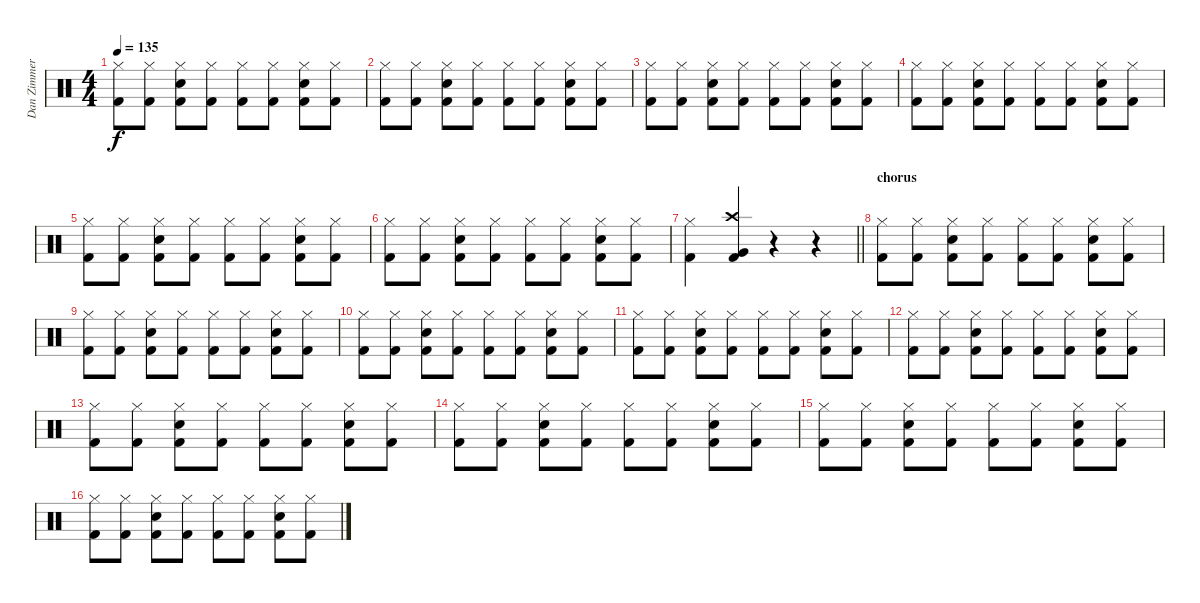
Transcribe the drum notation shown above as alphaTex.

\track ("Dan Zimmerman" "Dan Zimmer") {instrument percussion}
\staff {score}
\articulation defaults
\ts (4 4)
\tempo 135
\clef neutral
\ks c
("Hi-Hat (closed)" "Kick (hit) 2").8{dy f} ("Hi-Hat (closed)" "Kick (hit) 2").8 ("Snare (hit) 2" "Hi-Hat (closed)" "Kick (hit) 2").8 ("Hi-Hat (closed)" "Kick (hit) 2").8 ("Hi-Hat (closed)" "Kick (hit) 2").8 ("Hi-Hat (closed)" "Kick (hit) 2").8 ("Snare (hit) 2" "Hi-Hat (closed)" "Kick (hit) 2").8 ("Hi-Hat (closed)" "Kick (hit) 2").8 |
("Hi-Hat (closed)" "Kick (hit) 2").8 ("Hi-Hat (closed)" "Kick (hit) 2").8 ("Snare (hit) 2" "Hi-Hat (closed)" "Kick (hit) 2").8 ("Hi-Hat (closed)" "Kick (hit) 2").8 ("Hi-Hat (closed)" "Kick (hit) 2").8 ("Hi-Hat (closed)" "Kick (hit) 2").8 ("Snare (hit) 2" "Hi-Hat (closed)" "Kick (hit) 2").8 ("Hi-Hat (closed)" "Kick (hit) 2").8 |
("Hi-Hat (closed)" "Kick (hit) 2").8 ("Hi-Hat (closed)" "Kick (hit) 2").8 ("Snare (hit) 2" "Hi-Hat (closed)" "Kick (hit) 2").8 ("Hi-Hat (closed)" "Kick (hit) 2").8 ("Hi-Hat (closed)" "Kick (hit) 2").8 ("Hi-Hat (closed)" "Kick (hit) 2").8 ("Snare (hit) 2" "Hi-Hat (closed)" "Kick (hit) 2").8 ("Hi-Hat (closed)" "Kick (hit) 2").8 |
("Hi-Hat (closed)" "Kick (hit) 2").8 ("Hi-Hat (closed)" "Kick (hit) 2").8 ("Snare (hit) 2" "Hi-Hat (closed)" "Kick (hit) 2").8 ("Hi-Hat (closed)" "Kick (hit) 2").8 ("Hi-Hat (closed)" "Kick (hit) 2").8 ("Hi-Hat (closed)" "Kick (hit) 2").8 ("Snare (hit) 2" "Hi-Hat (closed)" "Kick (hit) 2").8 ("Hi-Hat (closed)" "Kick (hit) 2").8 |
("Hi-Hat (closed)" "Kick (hit) 2").8 ("Hi-Hat (closed)" "Kick (hit) 2").8 ("Snare (hit) 2" "Hi-Hat (closed)" "Kick (hit) 2").8 ("Hi-Hat (closed)" "Kick (hit) 2").8 ("Hi-Hat (closed)" "Kick (hit) 2").8 ("Hi-Hat (closed)" "Kick (hit) 2").8 ("Snare (hit) 2" "Hi-Hat (closed)" "Kick (hit) 2").8 ("Hi-Hat (closed)" "Kick (hit) 2").8 |
("Hi-Hat (closed)" "Kick (hit) 2").8 ("Hi-Hat (closed)" "Kick (hit) 2").8 ("Snare (hit) 2" "Hi-Hat (closed)" "Kick (hit) 2").8 ("Hi-Hat (closed)" "Kick (hit) 2").8 ("Hi-Hat (closed)" "Kick (hit) 2").8 ("Hi-Hat (closed)" "Kick (hit) 2").8 ("Snare (hit) 2" "Hi-Hat (closed)" "Kick (hit) 2").8 ("Hi-Hat (closed)" "Kick (hit) 2").8 |
\barLineRight lightlight
("Hi-Hat (closed)" "Kick (hit) 2").4 ("Crash high (hit)" "Very Low Tom (hit)" "Kick (hit) 2").4 r.4 r.4 |
\section ("" "chorus")
("Hi-Hat (closed)" "Kick (hit) 2").8 ("Hi-Hat (closed)" "Kick (hit) 2").8 ("Snare (hit) 2" "Hi-Hat (closed)" "Kick (hit) 2").8 ("Hi-Hat (closed)" "Kick (hit) 2").8 ("Hi-Hat (closed)" "Kick (hit) 2").8 ("Hi-Hat (closed)" "Kick (hit) 2").8 ("Snare (hit) 2" "Hi-Hat (closed)" "Kick (hit) 2").8 ("Hi-Hat (closed)" "Kick (hit) 2").8 |
("Hi-Hat (closed)" "Kick (hit) 2").8 ("Hi-Hat (closed)" "Kick (hit) 2").8 ("Snare (hit) 2" "Hi-Hat (closed)" "Kick (hit) 2").8 ("Hi-Hat (closed)" "Kick (hit) 2").8 ("Hi-Hat (closed)" "Kick (hit) 2").8 ("Hi-Hat (closed)" "Kick (hit) 2").8 ("Snare (hit) 2" "Hi-Hat (closed)" "Kick (hit) 2").8 ("Hi-Hat (closed)" "Kick (hit) 2").8 |
("Hi-Hat (closed)" "Kick (hit) 2").8 ("Hi-Hat (closed)" "Kick (hit) 2").8 ("Snare (hit) 2" "Hi-Hat (closed)" "Kick (hit) 2").8 ("Hi-Hat (closed)" "Kick (hit) 2").8 ("Hi-Hat (closed)" "Kick (hit) 2").8 ("Hi-Hat (closed)" "Kick (hit) 2").8 ("Snare (hit) 2" "Hi-Hat (closed)" "Kick (hit) 2").8 ("Hi-Hat (closed)" "Kick (hit) 2").8 |
("Hi-Hat (closed)" "Kick (hit) 2").8 ("Hi-Hat (closed)" "Kick (hit) 2").8 ("Snare (hit) 2" "Hi-Hat (closed)" "Kick (hit) 2").8 ("Hi-Hat (closed)" "Kick (hit) 2").8 ("Hi-Hat (closed)" "Kick (hit) 2").8 ("Hi-Hat (closed)" "Kick (hit) 2").8 ("Snare (hit) 2" "Hi-Hat (closed)" "Kick (hit) 2").8 ("Hi-Hat (closed)" "Kick (hit) 2").8 |
("Hi-Hat (closed)" "Kick (hit) 2").8 ("Hi-Hat (closed)" "Kick (hit) 2").8 ("Snare (hit) 2" "Hi-Hat (closed)" "Kick (hit) 2").8 ("Hi-Hat (closed)" "Kick (hit) 2").8 ("Hi-Hat (closed)" "Kick (hit) 2").8 ("Hi-Hat (closed)" "Kick (hit) 2").8 ("Snare (hit) 2" "Hi-Hat (closed)" "Kick (hit) 2").8 ("Hi-Hat (closed)" "Kick (hit) 2").8 |
("Hi-Hat (closed)" "Kick (hit) 2").8 ("Hi-Hat (closed)" "Kick (hit) 2").8 ("Snare (hit) 2" "Hi-Hat (closed)" "Kick (hit) 2").8 ("Hi-Hat (closed)" "Kick (hit) 2").8 ("Hi-Hat (closed)" "Kick (hit) 2").8 ("Hi-Hat (closed)" "Kick (hit) 2").8 ("Snare (hit) 2" "Hi-Hat (closed)" "Kick (hit) 2").8 ("Hi-Hat (closed)" "Kick (hit) 2").8 |
("Hi-Hat (closed)" "Kick (hit) 2").8 ("Hi-Hat (closed)" "Kick (hit) 2").8 ("Snare (hit) 2" "Hi-Hat (closed)" "Kick (hit) 2").8 ("Hi-Hat (closed)" "Kick (hit) 2").8 ("Hi-Hat (closed)" "Kick (hit) 2").8 ("Hi-Hat (closed)" "Kick (hit) 2").8 ("Snare (hit) 2" "Hi-Hat (closed)" "Kick (hit) 2").8 ("Hi-Hat (closed)" "Kick (hit) 2").8 |
("Hi-Hat (closed)" "Kick (hit) 2").8 ("Hi-Hat (closed)" "Kick (hit) 2").8 ("Snare (hit) 2" "Hi-Hat (closed)" "Kick (hit) 2").8 ("Hi-Hat (closed)" "Kick (hit) 2").8 ("Hi-Hat (closed)" "Kick (hit) 2").8 ("Hi-Hat (closed)" "Kick (hit) 2").8 ("Snare (hit) 2" "Hi-Hat (closed)" "Kick (hit) 2").8 ("Hi-Hat (closed)" "Kick (hit) 2").8 |
("Hi-Hat (closed)" "Kick (hit) 2").8 ("Hi-Hat (closed)" "Kick (hit) 2").8 ("Snare (hit) 2" "Hi-Hat (closed)" "Kick (hit) 2").8 ("Hi-Hat (closed)" "Kick (hit) 2").8 ("Hi-Hat (closed)" "Kick (hit) 2").8 ("Hi-Hat (closed)" "Kick (hit) 2").8 ("Snare (hit) 2" "Hi-Hat (closed)" "Kick (hit) 2").8 ("Hi-Hat (closed)" "Kick (hit) 2").8
